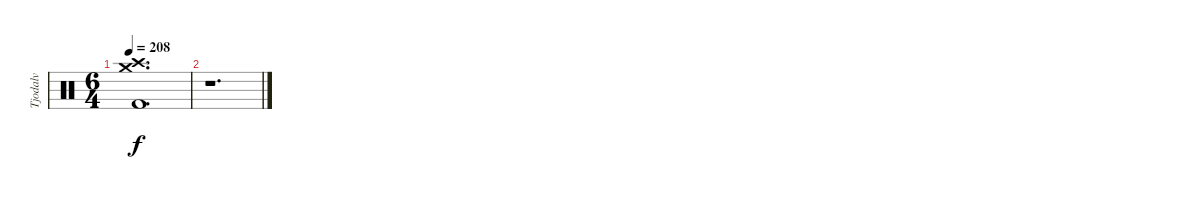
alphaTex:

\track ("Tjodalv" "Tjodalv") {instrument percussion}
\staff {score}
\articulation defaults
\ts (6 4)
\tempo 208
\clef neutral
\ks c
("Kick (hit) 2" "Crash high (hit)" "Crash medium (hit)").1{d dy f} |
r.1{d}
